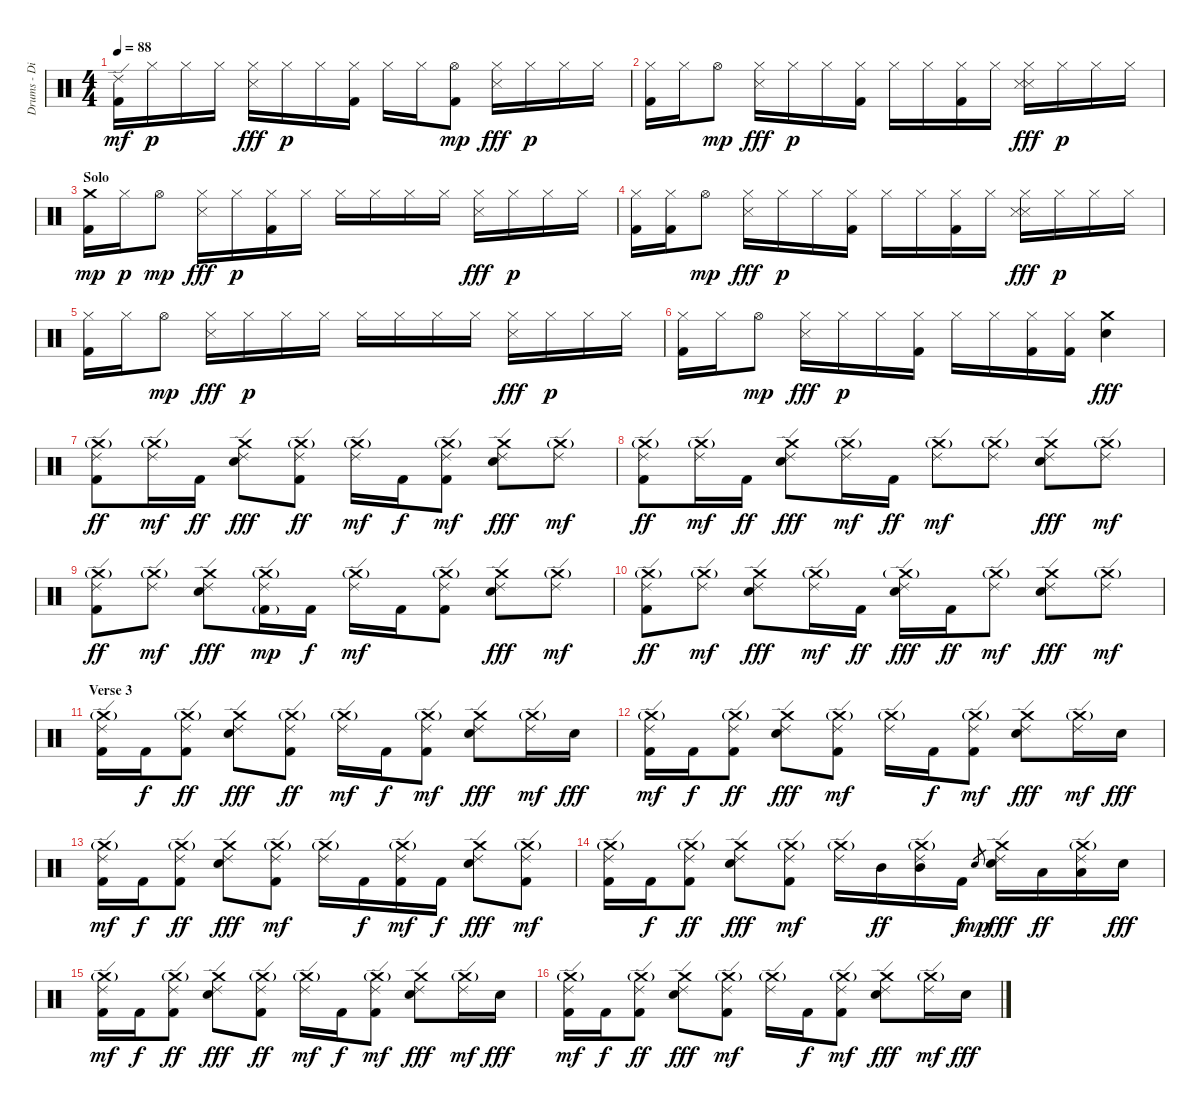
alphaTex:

\track ("Drums - Dino Campanella" "Drums - Di") {instrument percussion}
\staff {score}
\articulation defaults
\ts (4 4)
\tempo 88
\clef neutral
\ks c
("Ride (edge) 2" "Kick (hit) 2").16{dy mf} "Hi-Hat (closed)".16{dy p} "Hi-Hat (closed)".16 "Hi-Hat (closed)".16 ("Hi-Hat (closed)" "Snare (side stick) 3").16{dy fff} "Hi-Hat (closed)".16{dy p} "Hi-Hat (closed)".16 ("Hi-Hat (closed)" "Kick (hit) 2").16 "Hi-Hat (closed)".16 "Hi-Hat (closed)".16 ("Hi-Hat (open)" "Kick (hit) 2").8{dy mp} ("Hi-Hat (closed)" "Snare (side stick) 3").16{dy fff} "Hi-Hat (closed)".16{dy p} "Hi-Hat (closed)".16 "Hi-Hat (closed)".16 |
("Hi-Hat (closed)" "Kick (hit) 2").16 "Hi-Hat (closed)".16 "Hi-Hat (open)".8{dy mp} ("Hi-Hat (closed)" "Snare (side stick) 3").16{dy fff} "Hi-Hat (closed)".16{dy p} "Hi-Hat (closed)".16 ("Hi-Hat (closed)" "Kick (hit) 2").16 "Hi-Hat (closed)".16 "Hi-Hat (closed)".16 ("Hi-Hat (closed)" "Kick (hit) 2").16 "Hi-Hat (closed)".16 ("Hi-Hat (closed)" "Snare (side stick) 3" "Snare (side stick) 3").16{dy fff} "Hi-Hat (closed)".16{dy p} "Hi-Hat (closed)".16 "Hi-Hat (closed)".16 |
\section ("" "Solo")
("Crash medium (hit)" "Kick (hit) 2").16{dy mp} "Hi-Hat (closed)".16{dy p} "Hi-Hat (open)".8{dy mp} ("Hi-Hat (closed)" "Snare (side stick) 3").16{dy fff} "Hi-Hat (closed)".16{dy p} ("Hi-Hat (closed)" "Kick (hit) 2").16 "Hi-Hat (closed)".16 "Hi-Hat (closed)".16 "Hi-Hat (closed)".16 "Hi-Hat (closed)".16 "Hi-Hat (closed)".16 ("Hi-Hat (closed)" "Snare (side stick) 3").16{dy fff} "Hi-Hat (closed)".16{dy p} "Hi-Hat (closed)".16 "Hi-Hat (closed)".16 |
("Hi-Hat (closed)" "Kick (hit) 2").16 ("Hi-Hat (closed)" "Kick (hit) 2").16 "Hi-Hat (open)".8{dy mp} ("Hi-Hat (closed)" "Snare (side stick) 3").16{dy fff} "Hi-Hat (closed)".16{dy p} "Hi-Hat (closed)".16 ("Hi-Hat (closed)" "Kick (hit) 2").16 "Hi-Hat (closed)".16 "Hi-Hat (closed)".16 ("Hi-Hat (closed)" "Kick (hit) 2").16 "Hi-Hat (closed)".16 ("Hi-Hat (closed)" "Snare (side stick) 3" "Snare (side stick) 3").16{dy fff} "Hi-Hat (closed)".16{dy p} "Hi-Hat (closed)".16 "Hi-Hat (closed)".16 |
("Hi-Hat (closed)" "Kick (hit) 2").16 "Hi-Hat (closed)".16 "Hi-Hat (open)".8{dy mp} ("Hi-Hat (closed)" "Snare (side stick) 3").16{dy fff} "Hi-Hat (closed)".16{dy p} "Hi-Hat (closed)".16 "Hi-Hat (closed)".16 "Hi-Hat (closed)".16 "Hi-Hat (closed)".16 "Hi-Hat (closed)".16 "Hi-Hat (closed)".16 ("Hi-Hat (closed)" "Snare (side stick) 3").16{dy fff} "Hi-Hat (closed)".16{dy p} "Hi-Hat (closed)".16 "Hi-Hat (closed)".16 |
("Hi-Hat (closed)" "Kick (hit) 2").16 "Hi-Hat (closed)".16 "Hi-Hat (open)".8{dy mp} ("Hi-Hat (closed)" "Snare (side stick) 3").16{dy fff} "Hi-Hat (closed)".16{dy p} "Hi-Hat (closed)".16 ("Hi-Hat (closed)" "Kick (hit) 2").16 "Hi-Hat (closed)".16 "Hi-Hat (closed)".16 ("Hi-Hat (closed)" "Kick (hit) 2").16 ("Hi-Hat (closed)" "Kick (hit) 2").16 ("Crash medium (hit)" "Electric Snare (hit)").4{dy fff} |
("Crash medium (hit)"{g} "Ride (edge) 2" "Kick (hit) 2").8{dy ff} ("Crash medium (hit)"{g} "Ride (edge) 2").16{dy mf} "Kick (hit) 2".16{dy ff} ("Crash medium (hit)" "Ride (edge) 2" "Electric Snare (hit)").8{dy fff} ("Crash medium (hit)"{g} "Ride (edge) 2" "Kick (hit) 2").8{dy ff} ("Crash medium (hit)"{g} "Ride (edge) 2").16{dy mf} "Kick (hit) 2".16{dy f} ("Crash medium (hit)"{g} "Ride (edge) 2" "Kick (hit) 2").8{dy mf} ("Crash medium (hit)" "Ride (edge) 2" "Electric Snare (hit)").8{dy fff} ("Crash medium (hit)"{g} "Ride (edge) 2").8{dy mf} |
("Crash medium (hit)"{g} "Ride (edge) 2" "Kick (hit) 2").8{dy ff} ("Crash medium (hit)"{g} "Ride (edge) 2").16{dy mf} "Kick (hit) 2".16{dy ff} ("Crash medium (hit)" "Ride (edge) 2" "Electric Snare (hit)").8{dy fff} ("Crash medium (hit)"{g} "Ride (edge) 2").16{dy mf} "Kick (hit) 2".16{dy ff} ("Crash medium (hit)"{g} "Ride (edge) 2").8{dy mf} ("Crash medium (hit)"{g} "Ride (edge) 2").8 ("Crash medium (hit)" "Ride (edge) 2" "Electric Snare (hit)").8{dy fff} ("Crash medium (hit)"{g} "Ride (edge) 2").8{dy mf} |
("Crash medium (hit)"{g} "Ride (edge) 2" "Kick (hit) 2").8{dy ff} ("Crash medium (hit)"{g} "Ride (edge) 2").8{dy mf} ("Crash medium (hit)" "Ride (edge) 2" "Electric Snare (hit)").8{dy fff} ("Crash medium (hit)"{g} "Ride (edge) 2" "Kick (hit) 2"{g}).16{dy mp} "Kick (hit) 2".16{dy f} ("Crash medium (hit)"{g} "Ride (edge) 2").16{dy mf} "Kick (hit) 2".16 ("Crash medium (hit)"{g} "Ride (edge) 2" "Kick (hit) 2").8 ("Crash medium (hit)" "Ride (edge) 2" "Electric Snare (hit)").8{dy fff} ("Crash medium (hit)"{g} "Ride (edge) 2").8{dy mf} |
("Crash medium (hit)"{g} "Ride (edge) 2" "Kick (hit) 2").8{dy ff} ("Crash medium (hit)"{g} "Ride (edge) 2").8{dy mf} ("Crash medium (hit)" "Ride (edge) 2" "Electric Snare (hit)").8{dy fff} ("Crash medium (hit)"{g} "Ride (edge) 2").16{dy mf} "Kick (hit) 2".16{dy ff} ("Crash medium (hit)"{g} "Ride (edge) 2" "Electric Snare (hit)").16{dy fff} "Kick (hit) 2".16{dy ff} ("Crash medium (hit)"{g} "Ride (edge) 2").8{dy mf} ("Crash medium (hit)" "Ride (edge) 2" "Electric Snare (hit)").8{dy fff} ("Crash medium (hit)"{g} "Ride (edge) 2").8{dy mf} |
\section ("" "Verse 3")
("Crash medium (hit)"{g} "Ride (edge) 2" "Kick (hit) 2").16 "Kick (hit) 2".16{dy f} ("Crash medium (hit)"{g} "Ride (edge) 2" "Kick (hit) 2").8{dy ff} ("Crash medium (hit)" "Ride (edge) 2" "Electric Snare (hit)").8{dy fff} ("Crash medium (hit)"{g} "Ride (edge) 2" "Kick (hit) 2").8{dy ff} ("Crash medium (hit)"{g} "Ride (edge) 2").16{dy mf} "Kick (hit) 2".16{dy f} ("Crash medium (hit)"{g} "Ride (edge) 2" "Kick (hit) 2").8{dy mf} ("Crash medium (hit)" "Ride (edge) 2" "Electric Snare (hit)").8{dy fff} ("Crash medium (hit)"{g} "Ride (edge) 2").16{dy mf} "Electric Snare (hit)".16{dy fff} |
("Crash medium (hit)"{g} "Ride (edge) 2" "Kick (hit) 2").16{dy mf} "Kick (hit) 2".16{dy f} ("Crash medium (hit)"{g} "Ride (edge) 2" "Kick (hit) 2").8{dy ff} ("Crash medium (hit)" "Ride (edge) 2" "Electric Snare (hit)").8{dy fff} ("Crash medium (hit)"{g} "Ride (edge) 2" "Kick (hit) 2").8{dy mf} ("Crash medium (hit)"{g} "Ride (edge) 2").16 "Kick (hit) 2".16{dy f} ("Crash medium (hit)"{g} "Ride (edge) 2" "Kick (hit) 2").8{dy mf} ("Crash medium (hit)" "Ride (edge) 2" "Electric Snare (hit)").8{dy fff} ("Crash medium (hit)"{g} "Ride (edge) 2").16{dy mf} "Electric Snare (hit)".16{dy fff} |
("Crash medium (hit)"{g} "Ride (edge) 2" "Kick (hit) 2").16{dy mf} "Kick (hit) 2".16{dy f} ("Crash medium (hit)"{g} "Ride (edge) 2" "Kick (hit) 2").8{dy ff} ("Crash medium (hit)" "Ride (edge) 2" "Electric Snare (hit)").8{dy fff} ("Crash medium (hit)"{g} "Ride (edge) 2" "Kick (hit) 2").8{dy mf} ("Crash medium (hit)"{g} "Ride (edge) 2").16 "Kick (hit) 2".16{dy f} ("Crash medium (hit)"{g} "Ride (edge) 2" "Kick (hit) 2").16{dy mf} "Kick (hit) 2".16{dy f} ("Crash medium (hit)" "Ride (edge) 2" "Electric Snare (hit)").8{dy fff} ("Crash medium (hit)"{g} "Ride (edge) 2" "Kick (hit) 2").8{dy mf} |
("Crash medium (hit)"{g} "Ride (edge) 2" "Kick (hit) 2").16 "Kick (hit) 2".16{dy f} ("Crash medium (hit)"{g} "Ride (edge) 2" "Kick (hit) 2").8{dy ff} ("Crash medium (hit)" "Ride (edge) 2" "Electric Snare (hit)").8{dy fff} ("Crash medium (hit)"{g} "Ride (edge) 2" "Kick (hit) 2").8{dy mf} ("Crash medium (hit)"{g} "Ride (edge) 2").16 "Mid Tom (hit)".16{dy ff} ("Crash medium (hit)"{g} "Ride (edge) 2" "Mid Tom (hit)").16 "Kick (hit) 2".16{dy f} "Electric Snare (hit)".8{gr dy mp} ("Crash medium (hit)" "Ride (edge) 2" "Electric Snare (hit)").16{dy fff} "Low Tom (hit)".16{dy ff} ("Crash medium (hit)"{g} "Ride (edge) 2" "Low Tom (hit)").16 "Electric Snare (hit)".16{dy fff} |
("Crash medium (hit)"{g} "Ride (edge) 2" "Kick (hit) 2").16{dy mf} "Kick (hit) 2".16{dy f} ("Crash medium (hit)"{g} "Ride (edge) 2" "Kick (hit) 2").8{dy ff} ("Crash medium (hit)" "Ride (edge) 2" "Electric Snare (hit)").8{dy fff} ("Crash medium (hit)"{g} "Ride (edge) 2" "Kick (hit) 2").8{dy ff} ("Crash medium (hit)"{g} "Ride (edge) 2").16{dy mf} "Kick (hit) 2".16{dy f} ("Crash medium (hit)"{g} "Ride (edge) 2" "Kick (hit) 2").8{dy mf} ("Crash medium (hit)" "Ride (edge) 2" "Electric Snare (hit)").8{dy fff} ("Crash medium (hit)"{g} "Ride (edge) 2").16{dy mf} "Electric Snare (hit)".16{dy fff} |
("Crash medium (hit)"{g} "Ride (edge) 2" "Kick (hit) 2").16{dy mf} "Kick (hit) 2".16{dy f} ("Crash medium (hit)"{g} "Ride (edge) 2" "Kick (hit) 2").8{dy ff} ("Crash medium (hit)" "Ride (edge) 2" "Electric Snare (hit)").8{dy fff} ("Crash medium (hit)"{g} "Ride (edge) 2" "Kick (hit) 2").8{dy mf} ("Crash medium (hit)"{g} "Ride (edge) 2").16 "Kick (hit) 2".16{dy f} ("Crash medium (hit)"{g} "Ride (edge) 2" "Kick (hit) 2").8{dy mf} ("Crash medium (hit)" "Ride (edge) 2" "Electric Snare (hit)").8{dy fff} ("Crash medium (hit)"{g} "Ride (edge) 2").16{dy mf} "Electric Snare (hit)".16{dy fff}
